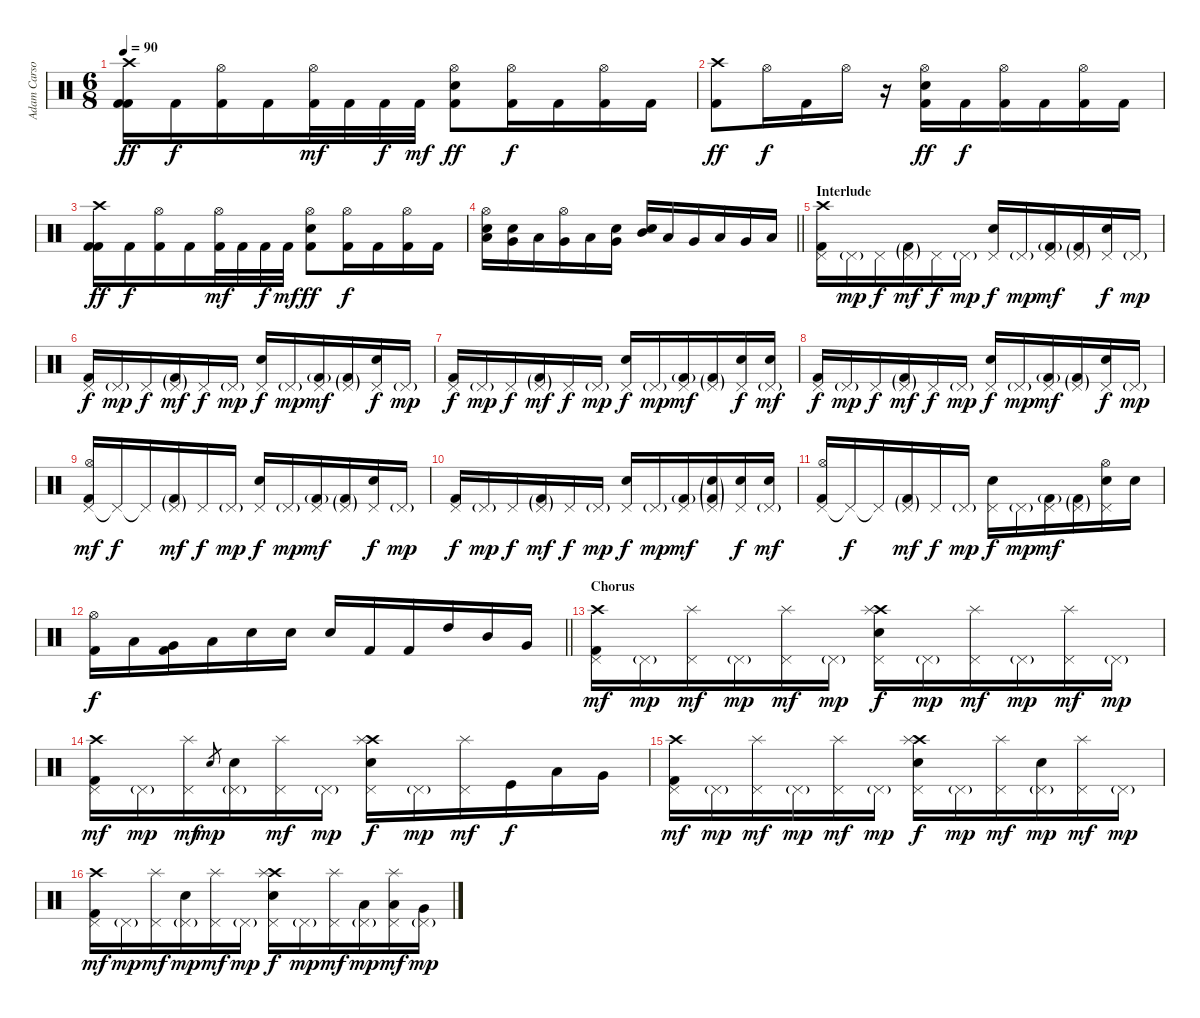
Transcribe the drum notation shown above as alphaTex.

\track ("Adam Carson" "Adam Carso") {instrument percussion}
\staff {score}
\articulation defaults
\ts (6 8)
\tempo 90
\clef neutral
\ks c
("Crash high (hit)" "Kick (hit) 2" "Kick (hit) 2").16{dy ff} "Kick (hit) 2".16{dy f} ("Hi-Hat (open)" "Kick (hit) 2").16 "Kick (hit) 2".16 ("Hi-Hat (open)" "Kick (hit) 2").32{dy mf} "Kick (hit) 2".32 "Kick (hit) 2".32{dy f} "Kick (hit) 2".32{dy mf} ("Hi-Hat (open)" "Snare (hit) 2" "Kick (hit) 2").8{dy ff} ("Hi-Hat (open)" "Kick (hit) 2").16{dy f} "Kick (hit) 2".16 ("Hi-Hat (open)" "Kick (hit) 2").16 "Kick (hit) 2".16 |
("Crash high (hit)" "Kick (hit) 2").8{dy ff} "Hi-Hat (open)".16{dy f} "Kick (hit) 2".16 "Hi-Hat (open)".16 r.16 ("Hi-Hat (open)" "Snare (hit) 2" "Kick (hit) 2").16{dy ff} "Kick (hit) 2".16{dy f} ("Hi-Hat (open)" "Kick (hit) 2").16 "Kick (hit) 2".16 ("Hi-Hat (open)" "Kick (hit) 2").16 "Kick (hit) 2".16 |
("Crash high (hit)" "Kick (hit) 2" "Kick (hit) 2").16{dy ff} "Kick (hit) 2".16{dy f} ("Hi-Hat (open)" "Kick (hit) 2").16 "Kick (hit) 2".16 ("Hi-Hat (open)" "Kick (hit) 2").32{dy mf} "Kick (hit) 2".32 "Kick (hit) 2".32{dy f} "Kick (hit) 2".32{dy mf} ("Hi-Hat (open)" "Snare (hit) 2" "Kick (hit) 2").8{dy ff} ("Hi-Hat (open)" "Kick (hit) 2").16{dy f} "Kick (hit) 2".16 ("Hi-Hat (open)" "Kick (hit) 2").16 "Kick (hit) 2".16 |
\barLineRight lightlight
("Hi-Hat (open)" "Low Floor Tom (hit)" "Snare (hit) 2").16 ("Very Low Tom (hit)" "Snare (hit) 2").16 "Low Tom (hit)".16 ("Hi-Hat (open)" "Very Low Tom (hit)").16 "Low Floor Tom (hit)".16 ("Snare (hit) 2" "Very Low Tom (hit)").16 ("Snare (hit) 2" "Mid Tom (hit)").16 "Low Tom (hit)".16 "Very Low Tom (hit)".16 "Low Tom (hit)".16 "Very Low Tom (hit)".16 "Low Floor Tom (hit)".16 |
\section ("" "Interlude")
("Pedal Hi-Hat (hit)" "Crash high (hit)" "Kick (hit) 2").16 "Pedal Hi-Hat (hit)"{g}.16{dy mp} "Pedal Hi-Hat (hit)".16{dy f} ("Pedal Hi-Hat (hit)"{g} "Kick (hit) 2"{g}).16{dy mf} "Pedal Hi-Hat (hit)".16{dy f} "Pedal Hi-Hat (hit)"{g}.16{dy mp} ("Pedal Hi-Hat (hit)" "Snare (hit) 2").16{dy f} "Pedal Hi-Hat (hit)"{g}.16{dy mp} ("Pedal Hi-Hat (hit)" "Kick (hit) 2"{g}).16{dy mf} ("Pedal Hi-Hat (hit)"{g} "Kick (hit) 2"{g}).16 ("Pedal Hi-Hat (hit)" "Snare (hit) 2").16{dy f} "Pedal Hi-Hat (hit)"{g}.16{dy mp} |
("Pedal Hi-Hat (hit)" "Kick (hit) 2").16{dy f} "Pedal Hi-Hat (hit)"{g}.16{dy mp} "Pedal Hi-Hat (hit)".16{dy f} ("Pedal Hi-Hat (hit)"{g} "Kick (hit) 2"{g}).16{dy mf} "Pedal Hi-Hat (hit)".16{dy f} "Pedal Hi-Hat (hit)"{g}.16{dy mp} ("Pedal Hi-Hat (hit)" "Snare (hit) 2").16{dy f} "Pedal Hi-Hat (hit)"{g}.16{dy mp} ("Pedal Hi-Hat (hit)" "Kick (hit) 2"{g}).16{dy mf} ("Pedal Hi-Hat (hit)"{g} "Kick (hit) 2"{g}).16 ("Pedal Hi-Hat (hit)" "Snare (hit) 2").16{dy f} "Pedal Hi-Hat (hit)"{g}.16{dy mp} |
("Pedal Hi-Hat (hit)" "Kick (hit) 2").16{dy f} "Pedal Hi-Hat (hit)"{g}.16{dy mp} "Pedal Hi-Hat (hit)".16{dy f} ("Pedal Hi-Hat (hit)"{g} "Kick (hit) 2"{g}).16{dy mf} "Pedal Hi-Hat (hit)".16{dy f} "Pedal Hi-Hat (hit)"{g}.16{dy mp} ("Pedal Hi-Hat (hit)" "Snare (hit) 2").16{dy f} "Pedal Hi-Hat (hit)"{g}.16{dy mp} ("Pedal Hi-Hat (hit)" "Kick (hit) 2"{g}).16{dy mf} ("Pedal Hi-Hat (hit)"{g} "Kick (hit) 2"{g}).16 ("Pedal Hi-Hat (hit)" "Snare (hit) 2").16{dy f} ("Pedal Hi-Hat (hit)"{g} "Snare (hit) 2").16{dy mf} |
("Pedal Hi-Hat (hit)" "Kick (hit) 2").16{dy f} "Pedal Hi-Hat (hit)"{g}.16{dy mp} "Pedal Hi-Hat (hit)".16{dy f} ("Pedal Hi-Hat (hit)"{g} "Kick (hit) 2"{g}).16{dy mf} "Pedal Hi-Hat (hit)".16{dy f} "Pedal Hi-Hat (hit)"{g}.16{dy mp} ("Pedal Hi-Hat (hit)" "Snare (hit) 2").16{dy f} "Pedal Hi-Hat (hit)"{g}.16{dy mp} ("Pedal Hi-Hat (hit)" "Kick (hit) 2"{g}).16{dy mf} ("Pedal Hi-Hat (hit)"{g} "Kick (hit) 2"{g}).16 ("Pedal Hi-Hat (hit)" "Snare (hit) 2").16{dy f} "Pedal Hi-Hat (hit)"{g}.16{dy mp} |
("Pedal Hi-Hat (hit)" "Hi-Hat (open)" "Kick (hit) 2").16{dy mf} "Pedal Hi-Hat (hit)"{t}.16{dy f} "Pedal Hi-Hat (hit)"{t}.16 ("Pedal Hi-Hat (hit)"{g} "Kick (hit) 2"{g}).16{dy mf} "Pedal Hi-Hat (hit)".16{dy f} "Pedal Hi-Hat (hit)"{g}.16{dy mp} ("Pedal Hi-Hat (hit)" "Snare (hit) 2").16{dy f} "Pedal Hi-Hat (hit)"{g}.16{dy mp} ("Pedal Hi-Hat (hit)" "Kick (hit) 2"{g}).16{dy mf} ("Pedal Hi-Hat (hit)"{g} "Kick (hit) 2"{g}).16 ("Pedal Hi-Hat (hit)" "Snare (hit) 2").16{dy f} "Pedal Hi-Hat (hit)"{g}.16{dy mp} |
("Pedal Hi-Hat (hit)" "Kick (hit) 2").16{dy f} "Pedal Hi-Hat (hit)"{g}.16{dy mp} "Pedal Hi-Hat (hit)".16{dy f} ("Pedal Hi-Hat (hit)"{g} "Kick (hit) 2"{g}).16{dy mf} "Pedal Hi-Hat (hit)".16{dy f} "Pedal Hi-Hat (hit)"{g}.16{dy mp} ("Pedal Hi-Hat (hit)" "Snare (hit) 2").16{dy f} "Pedal Hi-Hat (hit)"{g}.16{dy mp} ("Pedal Hi-Hat (hit)" "Kick (hit) 2"{g}).16{dy mf} ("Pedal Hi-Hat (hit)"{g} "Snare (hit) 2"{g} "Kick (hit) 2"{g}).16 ("Pedal Hi-Hat (hit)" "Snare (hit) 2").16{dy f} ("Pedal Hi-Hat (hit)"{g} "Snare (hit) 2").16{dy mf} |
("Pedal Hi-Hat (hit)" "Hi-Hat (open)" "Kick (hit) 2").16 "Pedal Hi-Hat (hit)"{t}.16{dy f} "Pedal Hi-Hat (hit)"{t}.16 ("Pedal Hi-Hat (hit)"{g} "Kick (hit) 2"{g}).16{dy mf} "Pedal Hi-Hat (hit)".16{dy f} "Pedal Hi-Hat (hit)"{g}.16{dy mp} ("Pedal Hi-Hat (hit)" "Snare (hit) 2").16{dy f} "Pedal Hi-Hat (hit)"{g}.16{dy mp} ("Pedal Hi-Hat (hit)" "Kick (hit) 2"{g}).16{dy mf} ("Pedal Hi-Hat (hit)"{g} "Kick (hit) 2"{g}).16 ("Pedal Hi-Hat (hit)" "Hi-Hat (open)" "Snare (hit) 2").16 "Snare (hit) 2".16 |
\barLineRight lightlight
("Kick (hit) 2" "Hi-Hat (open)").16{dy f} "Low Floor Tom (hit)".16 ("Very Low Tom (hit)" "Kick (hit) 2").16 "Low Tom (hit)".16 "Snare (hit) 2".16 "Snare (hit) 2".16 "Snare (hit) 2".16 "Kick (hit) 2".16 "Kick (hit) 2".16 "High Tom (hit)".16 "Mid Tom (hit)".16 "Very Low Tom (hit)".16 |
\section ("" "Chorus")
("Crash high (hit)" "Pedal Hi-Hat (hit)" "Kick (hit) 2").16{dy mf} "Pedal Hi-Hat (hit)"{g}.16{dy mp} ("Pedal Hi-Hat (hit)" "Splash (hit)").16{dy mf} "Pedal Hi-Hat (hit)"{g}.16{dy mp} ("Pedal Hi-Hat (hit)" "Splash (hit)").16{dy mf} "Pedal Hi-Hat (hit)"{g}.16{dy mp} ("Crash high (hit)" "Pedal Hi-Hat (hit)" "Splash (hit)" "Snare (hit) 2").16{dy f} "Pedal Hi-Hat (hit)"{g}.16{dy mp} ("Pedal Hi-Hat (hit)" "Splash (hit)").16{dy mf} "Pedal Hi-Hat (hit)"{g}.16{dy mp} ("Pedal Hi-Hat (hit)" "Splash (hit)").16{dy mf} "Pedal Hi-Hat (hit)"{g}.16{dy mp} |
("Crash high (hit)" "Pedal Hi-Hat (hit)" "Kick (hit) 2").16{dy mf} "Pedal Hi-Hat (hit)"{g}.16{dy mp} ("Pedal Hi-Hat (hit)" "Splash (hit)").16{dy mf} "Snare (hit) 2".8{gr dy mp} ("Pedal Hi-Hat (hit)"{g} "Snare (hit) 2").16 ("Pedal Hi-Hat (hit)" "Splash (hit)").16{dy mf} "Pedal Hi-Hat (hit)"{g}.16{dy mp} ("Crash high (hit)" "Pedal Hi-Hat (hit)" "Splash (hit)" "Snare (hit) 2").16{dy f} "Pedal Hi-Hat (hit)"{g}.16{dy mp} ("Pedal Hi-Hat (hit)" "Splash (hit)").16{dy mf} "Kick (hit)".16{dy f} "Low Floor Tom (hit)".16 "Very Low Tom (hit)".16 |
("Crash high (hit)" "Pedal Hi-Hat (hit)" "Kick (hit) 2").16{dy mf} "Pedal Hi-Hat (hit)"{g}.16{dy mp} ("Pedal Hi-Hat (hit)" "Splash (hit)").16{dy mf} "Pedal Hi-Hat (hit)"{g}.16{dy mp} ("Pedal Hi-Hat (hit)" "Splash (hit)").16{dy mf} "Pedal Hi-Hat (hit)"{g}.16{dy mp} ("Crash high (hit)" "Pedal Hi-Hat (hit)" "Splash (hit)" "Snare (hit) 2").16{dy f} "Pedal Hi-Hat (hit)"{g}.16{dy mp} ("Pedal Hi-Hat (hit)" "Splash (hit)").16{dy mf} ("Pedal Hi-Hat (hit)"{g} "Snare (hit) 2").16{dy mp} ("Pedal Hi-Hat (hit)" "Splash (hit)").16{dy mf} "Pedal Hi-Hat (hit)"{g}.16{dy mp} |
("Crash high (hit)" "Pedal Hi-Hat (hit)" "Kick (hit) 2").16{dy mf} "Pedal Hi-Hat (hit)"{g}.16{dy mp} ("Pedal Hi-Hat (hit)" "Splash (hit)").16{dy mf} ("Pedal Hi-Hat (hit)"{g} "Snare (hit) 2").16{dy mp} ("Pedal Hi-Hat (hit)" "Splash (hit)").16{dy mf} "Pedal Hi-Hat (hit)"{g}.16{dy mp} ("Crash high (hit)" "Pedal Hi-Hat (hit)" "Splash (hit)" "Snare (hit) 2").16{dy f} "Pedal Hi-Hat (hit)"{g}.16{dy mp} ("Pedal Hi-Hat (hit)" "Splash (hit)").16{dy mf} ("Pedal Hi-Hat (hit)"{g} "Low Tom (hit)").16{dy mp} ("Pedal Hi-Hat (hit)" "Splash (hit)" "Low Floor Tom (hit)").16{dy mf} ("Pedal Hi-Hat (hit)"{g} "Very Low Tom (hit)").16{dy mp}
